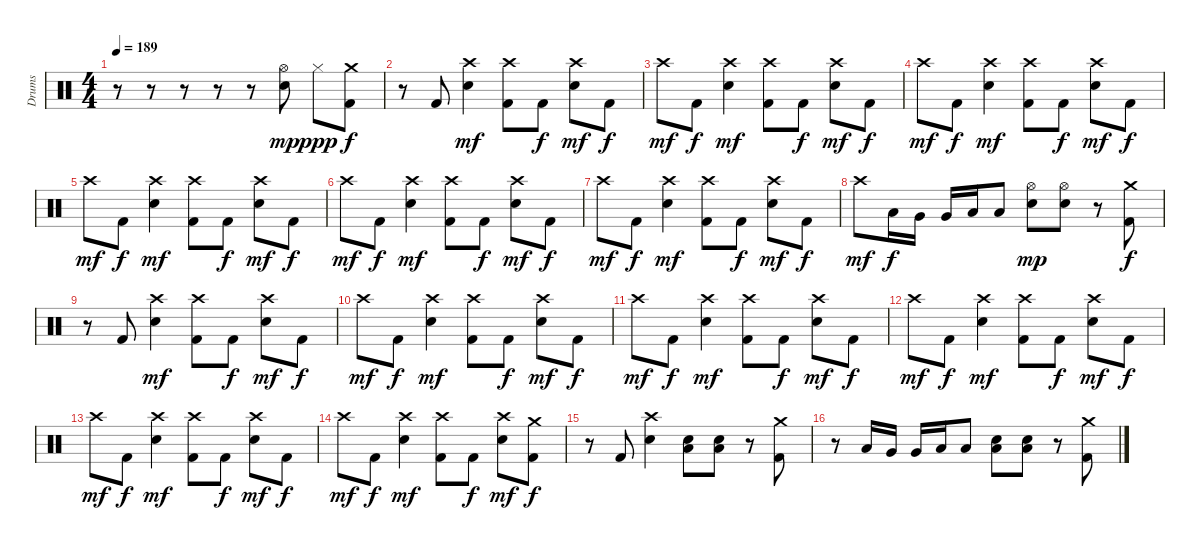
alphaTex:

\track ("Drums" "Drums") {instrument percussion}
\staff {score}
\articulation defaults
\ts (4 4)
\tempo 189
\clef neutral
\ks c
r.8{dy f} r.8 r.8 r.8 r.8 ("Hi-Hat (open)" "Snare (hit) 2").8{dy mp} "Hi-Hat (closed)".8{dy ppp} ("Crash medium (hit)" "Kick (hit) 2").8{dy f} |
r.8 "Kick (hit) 2".8 ("Crash high (hit)" "Snare (hit) 2").4{dy mf} ("Crash high (hit)" "Kick (hit) 2").8 "Kick (hit) 2".8{dy f} ("Crash high (hit)" "Snare (hit) 2").8{dy mf} "Kick (hit) 2".8{dy f} |
"Crash high (hit)".8{dy mf} "Kick (hit) 2".8{dy f} ("Crash high (hit)" "Snare (hit) 2").4{dy mf} ("Crash high (hit)" "Kick (hit) 2").8 "Kick (hit) 2".8{dy f} ("Crash high (hit)" "Snare (hit) 2").8{dy mf} "Kick (hit) 2".8{dy f} |
"Crash high (hit)".8{dy mf} "Kick (hit) 2".8{dy f} ("Crash high (hit)" "Snare (hit) 2").4{dy mf} ("Crash high (hit)" "Kick (hit) 2").8 "Kick (hit) 2".8{dy f} ("Crash high (hit)" "Snare (hit) 2").8{dy mf} "Kick (hit) 2".8{dy f} |
"Crash high (hit)".8{dy mf} "Kick (hit) 2".8{dy f} ("Crash high (hit)" "Snare (hit) 2").4{dy mf} ("Crash high (hit)" "Kick (hit) 2").8 "Kick (hit) 2".8{dy f} ("Crash high (hit)" "Snare (hit) 2").8{dy mf} "Kick (hit) 2".8{dy f} |
"Crash high (hit)".8{dy mf} "Kick (hit) 2".8{dy f} ("Crash high (hit)" "Snare (hit) 2").4{dy mf} ("Crash high (hit)" "Kick (hit) 2").8 "Kick (hit) 2".8{dy f} ("Crash high (hit)" "Snare (hit) 2").8{dy mf} "Kick (hit) 2".8{dy f} |
"Crash high (hit)".8{dy mf} "Kick (hit) 2".8{dy f} ("Crash high (hit)" "Snare (hit) 2").4{dy mf} ("Crash high (hit)" "Kick (hit) 2").8 "Kick (hit) 2".8{dy f} ("Crash high (hit)" "Snare (hit) 2").8{dy mf} "Kick (hit) 2".8{dy f} |
"Crash high (hit)".8{dy mf} "Low Tom (hit)".16{dy f} "Very Low Tom (hit)".16 "Very Low Tom (hit)".16 "Low Floor Tom (hit)".16 "Low Floor Tom (hit)".8 ("Hi-Hat (open)" "Snare (hit) 2").8{dy mp} ("Hi-Hat (open)" "Snare (hit) 2").8 r.8 ("Crash medium (hit)" "Kick (hit) 2").8{dy f} |
r.8 "Kick (hit) 2".8 ("Crash high (hit)" "Snare (hit) 2").4{dy mf} ("Crash high (hit)" "Kick (hit) 2").8 "Kick (hit) 2".8{dy f} ("Crash high (hit)" "Snare (hit) 2").8{dy mf} "Kick (hit) 2".8{dy f} |
"Crash high (hit)".8{dy mf} "Kick (hit) 2".8{dy f} ("Crash high (hit)" "Snare (hit) 2").4{dy mf} ("Crash high (hit)" "Kick (hit) 2").8 "Kick (hit) 2".8{dy f} ("Crash high (hit)" "Snare (hit) 2").8{dy mf} "Kick (hit) 2".8{dy f} |
"Crash high (hit)".8{dy mf} "Kick (hit) 2".8{dy f} ("Crash high (hit)" "Snare (hit) 2").4{dy mf} ("Crash high (hit)" "Kick (hit) 2").8 "Kick (hit) 2".8{dy f} ("Crash high (hit)" "Snare (hit) 2").8{dy mf} "Kick (hit) 2".8{dy f} |
"Crash high (hit)".8{dy mf} "Kick (hit) 2".8{dy f} ("Crash high (hit)" "Snare (hit) 2").4{dy mf} ("Crash high (hit)" "Kick (hit) 2").8 "Kick (hit) 2".8{dy f} ("Crash high (hit)" "Snare (hit) 2").8{dy mf} "Kick (hit) 2".8{dy f} |
"Crash high (hit)".8{dy mf} "Kick (hit) 2".8{dy f} ("Crash high (hit)" "Snare (hit) 2").4{dy mf} ("Crash high (hit)" "Kick (hit) 2").8 "Kick (hit) 2".8{dy f} ("Crash high (hit)" "Snare (hit) 2").8{dy mf} "Kick (hit) 2".8{dy f} |
"Crash high (hit)".8{dy mf} "Kick (hit) 2".8{dy f} ("Crash high (hit)" "Snare (hit) 2").4{dy mf} ("Crash high (hit)" "Kick (hit) 2").8 "Kick (hit) 2".8{dy f} ("Crash high (hit)" "Snare (hit) 2").8{dy mf} ("Crash medium (hit)" "Kick (hit) 2").8{dy f} |
r.8 "Kick (hit) 2".8 ("Crash high (hit)" "Snare (hit) 2").4 ("Low Floor Tom (hit)" "Snare (hit) 2").8 ("Low Floor Tom (hit)" "Snare (hit) 2").8 r.8 ("Crash medium (hit)" "Kick (hit) 2").8 |
r.8 "Low Tom (hit)".16 "Very Low Tom (hit)".16 "Very Low Tom (hit)".16 "Low Floor Tom (hit)".16 "Low Floor Tom (hit)".8 ("Low Floor Tom (hit)" "Snare (hit) 2").8 ("Low Floor Tom (hit)" "Snare (hit) 2").8 r.8 ("Crash medium (hit)" "Kick (hit) 2").8
